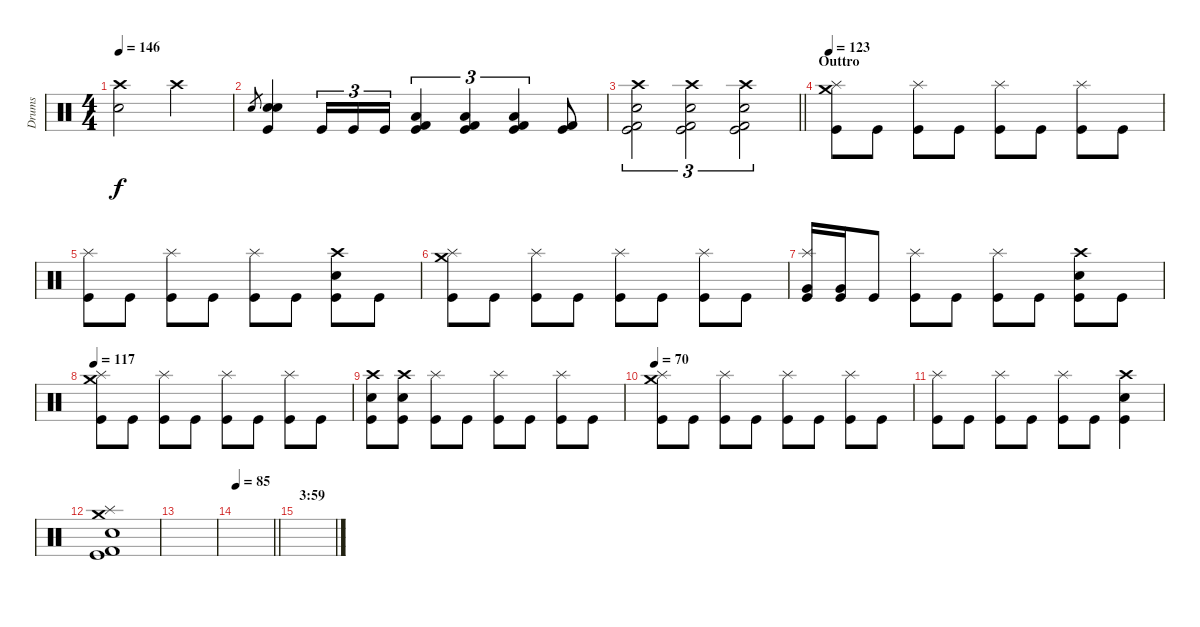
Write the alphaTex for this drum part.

\track ("Drums" "Drums") {instrument percussion}
\staff {score}
\articulation defaults
\ts (4 4)
\tempo 146
\clef neutral
\ks c
("Crash high (hit)" "Snare (hit) 2").2{dy f} "Crash high (hit)".2 |
"Electric Snare (hit)".8{gr} ("Electric Snare (hit)" "Snare (hit) 2" "Kick (hit)").4 "Kick (hit)".16{tu (3 2)} "Kick (hit)".16{tu (3 2)} "Kick (hit)".16{tu (3 2)} ("Low Floor Tom (hit)" "Kick (hit) 2" "Kick (hit)").4{tu (3 2)} ("Low Floor Tom (hit)" "Kick (hit) 2" "Kick (hit)").4{tu (3 2)} ("Low Floor Tom (hit)" "Kick (hit) 2" "Kick (hit)").4{tu (3 2)} ("Kick (hit) 2" "Kick (hit)").8 |
\barLineRight lightlight
("Crash high (hit)" "Snare (hit) 2" "Kick (hit) 2" "Kick (hit)").2{tu (3 2)} ("Crash high (hit)" "Snare (hit) 2" "Kick (hit) 2" "Kick (hit)").2{tu (3 2)} ("Crash high (hit)" "Snare (hit) 2" "Kick (hit) 2" "Kick (hit)").2{tu (3 2)} |
\section ("" "Outtro")
\tempo 123
("Crash medium (hit)" "Splash (hit)" "Kick (hit)").8 "Kick (hit)".8 ("Splash (hit)" "Kick (hit)").8 "Kick (hit)".8 ("Splash (hit)" "Kick (hit)").8 "Kick (hit)".8 ("Splash (hit)" "Kick (hit)").8 "Kick (hit)".8 |
("Splash (hit)" "Kick (hit)").8 "Kick (hit)".8 ("Splash (hit)" "Kick (hit)").8 "Kick (hit)".8 ("Splash (hit)" "Kick (hit)").8 "Kick (hit)".8 ("Crash high (hit)" "Snare (hit) 2" "Kick (hit)").8 "Kick (hit)".8 |
("Crash medium (hit)" "Splash (hit)" "Kick (hit)").8 "Kick (hit)".8 ("Splash (hit)" "Kick (hit)").8 "Kick (hit)".8 ("Splash (hit)" "Kick (hit)").8 "Kick (hit)".8 ("Splash (hit)" "Kick (hit)").8 "Kick (hit)".8 |
("Splash (hit)" "Very Low Tom (hit)" "Kick (hit)").16 ("Very Low Tom (hit)" "Kick (hit)").16 "Kick (hit)".8 ("Splash (hit)" "Kick (hit)").8 "Kick (hit)".8 ("Splash (hit)" "Kick (hit)").8 "Kick (hit)".8 ("Crash high (hit)" "Snare (hit) 2" "Kick (hit)").8 "Kick (hit)".8 |
\tempo 117
("Crash medium (hit)" "Splash (hit)" "Kick (hit)").8 "Kick (hit)".8 ("Splash (hit)" "Kick (hit)").8 "Kick (hit)".8 ("Splash (hit)" "Kick (hit)").8 "Kick (hit)".8 ("Splash (hit)" "Kick (hit)").8 "Kick (hit)".8 |
("Crash high (hit)" "Snare (hit) 2" "Kick (hit)").8 ("Crash high (hit)" "Snare (hit) 2" "Kick (hit)").8 ("Splash (hit)" "Kick (hit)").8 "Kick (hit)".8 ("Splash (hit)" "Kick (hit)").8 "Kick (hit)".8 ("Splash (hit)" "Kick (hit)").8 "Kick (hit)".8 |
\tempo 70
("Crash medium (hit)" "Splash (hit)" "Kick (hit)").8 "Kick (hit)".8 ("Splash (hit)" "Kick (hit)").8 "Kick (hit)".8 ("Splash (hit)" "Kick (hit)").8 "Kick (hit)".8 ("Splash (hit)" "Kick (hit)").8 "Kick (hit)".8 |
("Splash (hit)" "Kick (hit)").8 "Kick (hit)".8 ("Splash (hit)" "Kick (hit)").8 "Kick (hit)".8 ("Splash (hit)" "Kick (hit)").8 "Kick (hit)".8 ("Crash high (hit)" "Snare (hit) 2" "Kick (hit)").4 |
("Crash medium (hit)" "Splash (hit)" "Electric Snare (hit)" "Kick (hit) 2" "Kick (hit)").1 |
|
\tempo 85
\barLineRight lightlight
|
\section ("" "3:59")
